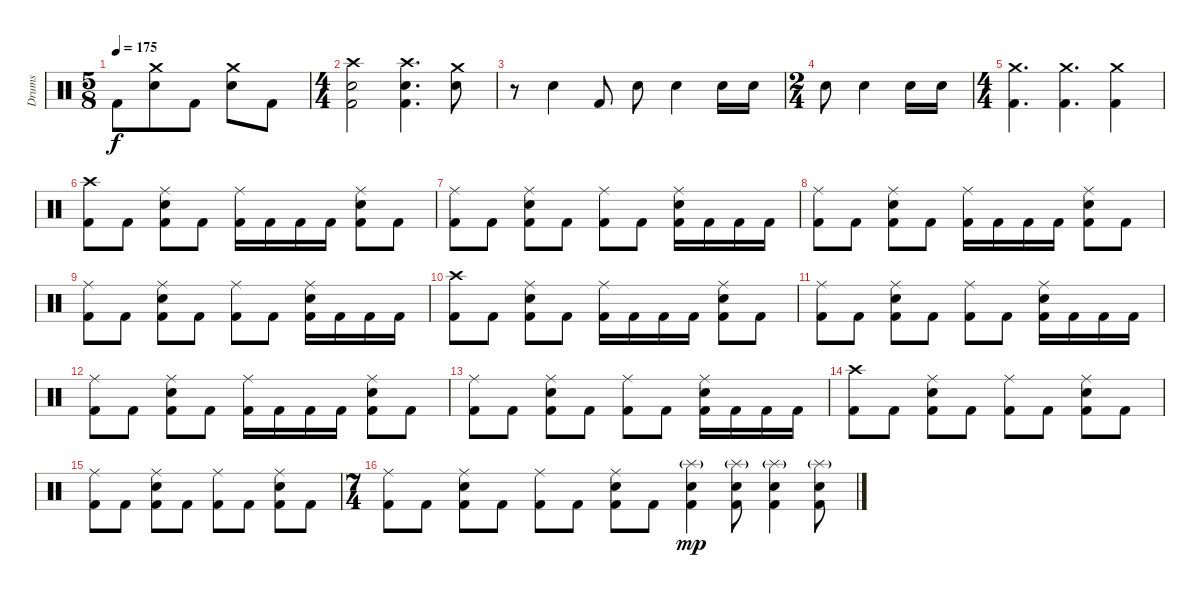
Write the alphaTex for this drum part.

\track ("Drums" "Drums") {instrument percussion}
\staff {score}
\articulation defaults
\ts (5 8)
\tempo 175
\clef neutral
\ks c "Kick (hit) 2".8{dy f}
("Crash medium (hit)" "Electric Snare (hit)").8 "Kick (hit) 2".8 ("Crash medium (hit)" "Electric Snare (hit)").8 "Kick (hit) 2".8 |
\ts (4 4)
("Crash high (hit)" "Electric Snare (hit)" "Kick (hit) 2").2 ("Crash high (hit)" "Electric Snare (hit)" "Kick (hit) 2").4{d} ("Crash medium (hit)" "Electric Snare (hit)").8 |
r.8 "Electric Snare (hit)".4 "Kick (hit) 2".8 "Electric Snare (hit)".8 "Electric Snare (hit)".4 "Electric Snare (hit)".16 "Electric Snare (hit)".16 |
\ts (2 4)
"Electric Snare (hit)".8 "Electric Snare (hit)".4 "Electric Snare (hit)".16 "Electric Snare (hit)".16 |
\ts (4 4)
("Crash medium (hit)" "Kick (hit) 2").4{d} ("Crash medium (hit)" "Kick (hit) 2").4{d} ("Crash medium (hit)" "Kick (hit) 2").4 |
("Crash high (hit)" "Kick (hit) 2").8 "Kick (hit) 2".8 ("Ride (middle)" "Electric Snare (hit)" "Kick (hit) 2").8 "Kick (hit) 2".8 ("Ride (middle)" "Kick (hit) 2").16 "Kick (hit) 2".16 "Kick (hit) 2".16 "Kick (hit) 2".16 ("Ride (middle)" "Electric Snare (hit)" "Kick (hit) 2").8 "Kick (hit) 2".8 |
("Ride (middle)" "Kick (hit) 2").8 "Kick (hit) 2".8 ("Ride (middle)" "Electric Snare (hit)" "Kick (hit) 2").8 "Kick (hit) 2".8 ("Ride (middle)" "Kick (hit) 2").8 "Kick (hit) 2".8 ("Ride (middle)" "Electric Snare (hit)" "Kick (hit) 2").16 "Kick (hit) 2".16 "Kick (hit) 2".16 "Kick (hit) 2".16 |
("Ride (middle)" "Kick (hit) 2").8 "Kick (hit) 2".8 ("Ride (middle)" "Electric Snare (hit)" "Kick (hit) 2").8 "Kick (hit) 2".8 ("Ride (middle)" "Kick (hit) 2").16 "Kick (hit) 2".16 "Kick (hit) 2".16 "Kick (hit) 2".16 ("Ride (middle)" "Electric Snare (hit)" "Kick (hit) 2").8 "Kick (hit) 2".8 |
("Ride (middle)" "Kick (hit) 2").8 "Kick (hit) 2".8 ("Ride (middle)" "Electric Snare (hit)" "Kick (hit) 2").8 "Kick (hit) 2".8 ("Ride (middle)" "Kick (hit) 2").8 "Kick (hit) 2".8 ("Ride (middle)" "Electric Snare (hit)" "Kick (hit) 2").16 "Kick (hit) 2".16 "Kick (hit) 2".16 "Kick (hit) 2".16 |
("Crash high (hit)" "Kick (hit) 2").8 "Kick (hit) 2".8 ("Ride (middle)" "Electric Snare (hit)" "Kick (hit) 2").8 "Kick (hit) 2".8 ("Ride (middle)" "Kick (hit) 2").16 "Kick (hit) 2".16 "Kick (hit) 2".16 "Kick (hit) 2".16 ("Ride (middle)" "Electric Snare (hit)" "Kick (hit) 2").8 "Kick (hit) 2".8 |
("Ride (middle)" "Kick (hit) 2").8 "Kick (hit) 2".8 ("Ride (middle)" "Electric Snare (hit)" "Kick (hit) 2").8 "Kick (hit) 2".8 ("Ride (middle)" "Kick (hit) 2").8 "Kick (hit) 2".8 ("Ride (middle)" "Electric Snare (hit)" "Kick (hit) 2").16 "Kick (hit) 2".16 "Kick (hit) 2".16 "Kick (hit) 2".16 |
("Ride (middle)" "Kick (hit) 2").8 "Kick (hit) 2".8 ("Ride (middle)" "Electric Snare (hit)" "Kick (hit) 2").8 "Kick (hit) 2".8 ("Ride (middle)" "Kick (hit) 2").16 "Kick (hit) 2".16 "Kick (hit) 2".16 "Kick (hit) 2".16 ("Ride (middle)" "Electric Snare (hit)" "Kick (hit) 2").8 "Kick (hit) 2".8 |
("Ride (middle)" "Kick (hit) 2").8 "Kick (hit) 2".8 ("Ride (middle)" "Electric Snare (hit)" "Kick (hit) 2").8 "Kick (hit) 2".8 ("Ride (middle)" "Kick (hit) 2").8 "Kick (hit) 2".8 ("Ride (middle)" "Electric Snare (hit)" "Kick (hit) 2").16 "Kick (hit) 2".16 "Kick (hit) 2".16 "Kick (hit) 2".16 |
("Crash high (hit)" "Kick (hit) 2").8 "Kick (hit) 2".8 ("Ride (middle)" "Electric Snare (hit)" "Kick (hit) 2").8 "Kick (hit) 2".8 ("Ride (middle)" "Kick (hit) 2").8 "Kick (hit) 2".8 ("Ride (middle)" "Electric Snare (hit)" "Kick (hit) 2").8 "Kick (hit) 2".8 |
("Ride (middle)" "Kick (hit) 2").8 "Kick (hit) 2".8 ("Ride (middle)" "Electric Snare (hit)" "Kick (hit) 2").8 "Kick (hit) 2".8 ("Ride (middle)" "Kick (hit) 2").8 "Kick (hit) 2".8 ("Ride (middle)" "Electric Snare (hit)" "Kick (hit) 2").8 "Kick (hit) 2".8 |
\ts (7 4)
("Ride (middle)" "Kick (hit) 2").8 "Kick (hit) 2".8 ("Ride (middle)" "Electric Snare (hit)" "Kick (hit) 2").8 "Kick (hit) 2".8 ("Ride (middle)" "Kick (hit) 2").8 "Kick (hit) 2".8 ("Ride (middle)" "Electric Snare (hit)" "Kick (hit) 2").8 "Kick (hit) 2".8 ("Splash (hit)"{g} "Electric Snare (hit)" "Kick (hit) 2").4{dy mp} ("Splash (hit)"{g} "Electric Snare (hit)" "Kick (hit) 2").8 ("Splash (hit)"{g} "Electric Snare (hit)" "Kick (hit) 2").4 ("Splash (hit)"{g} "Electric Snare (hit)" "Kick (hit) 2").8
